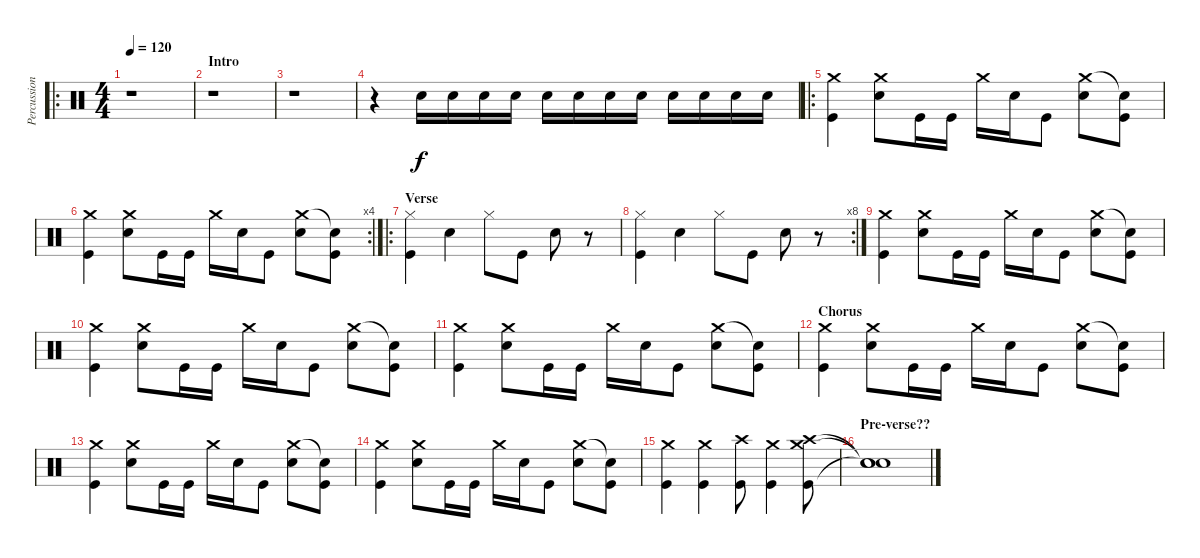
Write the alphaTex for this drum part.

\track ("Percussion" "Percussion") {instrument percussion}
\staff {score}
\articulation defaults
\ro
\ts (4 4)
\tempo 120
\clef neutral
\ks c
r.1{dy f} |
\section ("" "Intro")
r.1 |
r.1 |
r.4 "Snare (hit) 2".16{volume 4} "Snare (hit) 2".16{volume 13} "Snare (hit) 2".16 "Snare (hit) 2".16 "Snare (hit) 2".16 "Snare (hit) 2".16 "Snare (hit) 2".16 "Snare (hit) 2".16 "Snare (hit) 2".16 "Snare (hit) 2".16 "Snare (hit) 2".16 "Snare (hit) 2".16 |
\ro
("Crash medium (hit)" "Kick (hit)").4 ("Crash medium (hit)" "Snare (hit) 2").8 "Kick (hit)".16 "Kick (hit)".16 "Crash medium (hit)".16 "Snare (hit) 2".16 "Kick (hit)".8 ("Crash medium (hit)" "Snare (hit) 2").8 ("Snare (hit)"{t} "Kick (hit)").8 |
\rc 4
("Crash medium (hit)" "Kick (hit)").4 ("Crash medium (hit)" "Snare (hit) 2").8 "Kick (hit)".16 "Kick (hit)".16 "Crash medium (hit)".16 "Snare (hit) 2".16 "Kick (hit)".8 ("Crash medium (hit)" "Snare (hit) 2").8 ("Snare (hit)"{t} "Kick (hit)").8 |
\ro
\section ("" "Verse")
("Hi-Hat (closed)" "Kick (hit)").4 "Snare (hit) 2".4 "Hi-Hat (closed)".8 "Kick (hit)".8 "Snare (hit) 2".8 r.8 |
\rc 8
("Hi-Hat (closed)" "Kick (hit)").4 "Snare (hit) 2".4 "Hi-Hat (closed)".8 "Kick (hit)".8 "Snare (hit) 2".8 r.8 |
("Crash medium (hit)" "Kick (hit)").4 ("Crash medium (hit)" "Snare (hit) 2").8 "Kick (hit)".16 "Kick (hit)".16 "Crash medium (hit)".16 "Snare (hit) 2".16 "Kick (hit)".8 ("Crash medium (hit)" "Snare (hit) 2").8 ("Snare (hit)"{t} "Kick (hit)").8 |
("Crash medium (hit)" "Kick (hit)").4 ("Crash medium (hit)" "Snare (hit) 2").8 "Kick (hit)".16 "Kick (hit)".16 "Crash medium (hit)".16 "Snare (hit) 2".16 "Kick (hit)".8 ("Crash medium (hit)" "Snare (hit) 2").8 ("Snare (hit)"{t} "Kick (hit)").8 |
("Crash medium (hit)" "Kick (hit)").4 ("Crash medium (hit)" "Snare (hit) 2").8 "Kick (hit)".16 "Kick (hit)".16 "Crash medium (hit)".16 "Snare (hit) 2".16 "Kick (hit)".8 ("Crash medium (hit)" "Snare (hit) 2").8 ("Snare (hit)"{t} "Kick (hit)").8 |
\section ("" "Chorus")
("Crash medium (hit)" "Kick (hit)").4 ("Crash medium (hit)" "Snare (hit) 2").8 "Kick (hit)".16 "Kick (hit)".16 "Crash medium (hit)".16 "Snare (hit) 2".16 "Kick (hit)".8 ("Crash medium (hit)" "Snare (hit) 2").8 ("Snare (hit)"{t} "Kick (hit)").8 |
("Crash medium (hit)" "Kick (hit)").4 ("Crash medium (hit)" "Snare (hit) 2").8 "Kick (hit)".16 "Kick (hit)".16 "Crash medium (hit)".16 "Snare (hit) 2".16 "Kick (hit)".8 ("Crash medium (hit)" "Snare (hit) 2").8 ("Snare (hit)"{t} "Kick (hit)").8 |
("Crash medium (hit)" "Kick (hit)").4 ("Crash medium (hit)" "Snare (hit) 2").8 "Kick (hit)".16 "Kick (hit)".16 "Crash medium (hit)".16 "Snare (hit) 2".16 "Kick (hit)".8 ("Crash medium (hit)" "Snare (hit) 2").8 ("Snare (hit)"{t} "Kick (hit)").8 |
("Crash medium (hit)" "Kick (hit)").4 ("Crash medium (hit)" "Kick (hit)").4 ("Crash high (hit)" "Kick (hit)").8 ("Crash medium (hit)" "Kick (hit)").4 ("Crash medium (hit)" "Crash high (hit)" "Kick (hit)").8 |
\section ("" "Pre-verse??")
("Snare (hit)"{t} "Snare (hit)"{t} "Snare (hit)"{t}).1
